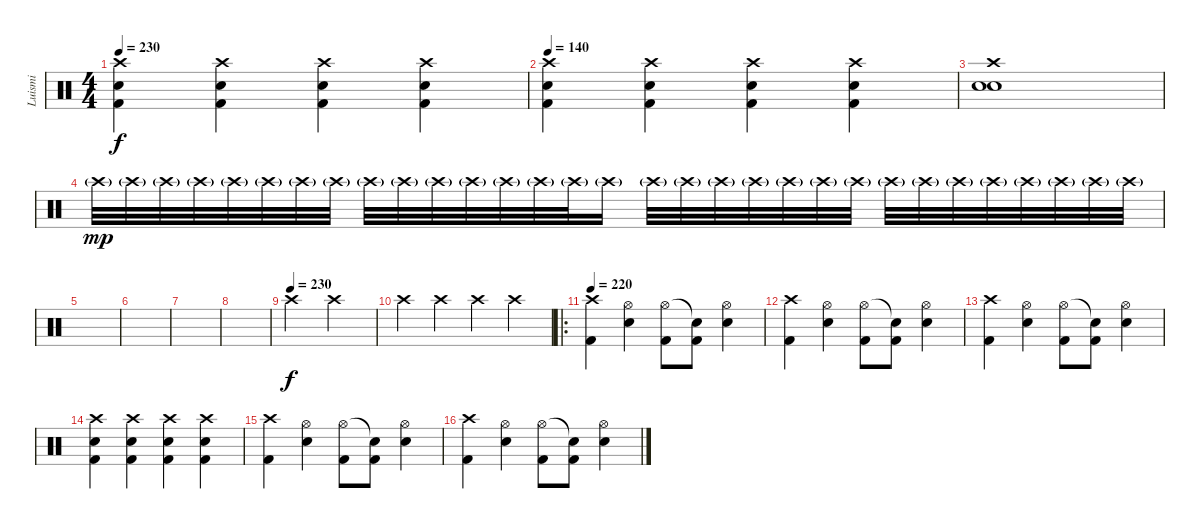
\track ("Luismi" "Luismi") {instrument percussion}
\staff {score}
\articulation defaults
\ts (4 4)
\tempo 230
\clef neutral
\ks c
("Crash high (hit)" "Snare (hit) 2" "Kick (hit) 2").4{dy f} ("Crash high (hit)" "Snare (hit) 2" "Kick (hit) 2").4 ("Crash high (hit)" "Snare (hit) 2" "Kick (hit) 2").4 ("Crash high (hit)" "Snare (hit) 2" "Kick (hit) 2").4 |
\tempo 120
\tempo 140
("Crash high (hit)" "Snare (hit) 2" "Kick (hit) 2").4 ("Crash high (hit)" "Snare (hit) 2" "Kick (hit) 2").4 ("Crash high (hit)" "Snare (hit) 2" "Kick (hit) 2").4 ("Crash high (hit)" "Snare (hit) 2" "Kick (hit) 2").4 |
("Crash high (hit)" "Electric Snare (hit)" "Snare (hit) 2").1{volume 0} |
"Crash high (hit)"{g}.32{dy mp volume 16} "Crash high (hit)"{g}.32 "Crash high (hit)"{g}.32 "Crash high (hit)"{g}.32 "Crash high (hit)"{g}.32 "Crash high (hit)"{g}.32 "Crash high (hit)"{g}.32 "Crash high (hit)"{g}.32 "Crash high (hit)"{g}.32 "Crash high (hit)"{g}.32 "Crash high (hit)"{g}.32 "Crash high (hit)"{g}.32 "Crash high (hit)"{g}.32 "Crash high (hit)"{g}.32 "Crash high (hit)"{g}.32 "Crash high (hit)"{g}.16 "Crash high (hit)"{g}.32 "Crash high (hit)"{g}.32 "Crash high (hit)"{g}.32 "Crash high (hit)"{g}.32 "Crash high (hit)"{g}.32 "Crash high (hit)"{g}.32 "Crash high (hit)"{g}.32 "Crash high (hit)"{g}.32 "Crash high (hit)"{g}.32 "Crash high (hit)"{g}.32 "Crash high (hit)"{g}.32 "Crash high (hit)"{g}.32 "Crash high (hit)"{g}.32 "Crash high (hit)"{g}.32 "Crash high (hit)"{g}.32 |
|
|
|
|
\tempo (230)
"Crash high (hit)".2{dy f} "Crash high (hit)".2 |
"Crash high (hit)".4 "Crash high (hit)".4 "Crash high (hit)".4 "Crash high (hit)".4 |
\ro
\tempo 220
("Crash high (hit)" "Kick (hit) 2").4 ("Hi-Hat (open)" "Snare (hit) 2").4 ("Hi-Hat (open)" "Kick (hit) 2").8 ("Snare (hit)"{t} "Kick (hit) 2").8 ("Hi-Hat (open)" "Snare (hit) 2").4 |
("Crash high (hit)" "Kick (hit) 2").4 ("Hi-Hat (open)" "Snare (hit) 2").4 ("Hi-Hat (open)" "Kick (hit) 2").8 ("Snare (hit)"{t} "Kick (hit) 2").8 ("Hi-Hat (open)" "Snare (hit) 2").4 |
("Crash high (hit)" "Kick (hit) 2").4 ("Hi-Hat (open)" "Snare (hit) 2").4 ("Hi-Hat (open)" "Kick (hit) 2").8 ("Snare (hit)"{t} "Kick (hit) 2").8 ("Hi-Hat (open)" "Snare (hit) 2").4 |
("Crash high (hit)" "Snare (hit) 2" "Kick (hit) 2").4 ("Crash high (hit)" "Snare (hit) 2" "Kick (hit) 2").4 ("Crash high (hit)" "Snare (hit) 2" "Kick (hit) 2").4 ("Crash high (hit)" "Snare (hit) 2" "Kick (hit) 2").4 |
("Crash high (hit)" "Kick (hit) 2").4 ("Hi-Hat (open)" "Snare (hit) 2").4 ("Hi-Hat (open)" "Kick (hit) 2").8 ("Snare (hit)"{t} "Kick (hit) 2").8 ("Hi-Hat (open)" "Snare (hit) 2").4 |
("Crash high (hit)" "Kick (hit) 2").4 ("Hi-Hat (open)" "Snare (hit) 2").4 ("Hi-Hat (open)" "Kick (hit) 2").8 ("Snare (hit)"{t} "Kick (hit) 2").8 ("Hi-Hat (open)" "Snare (hit) 2").4
